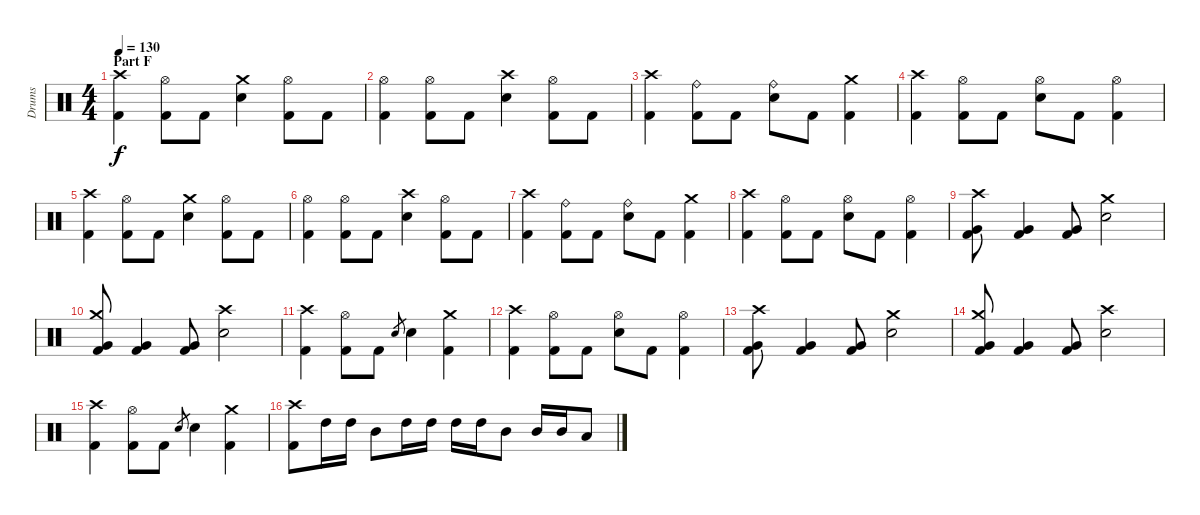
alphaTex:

\track ("Drums" "Drums") {instrument percussion}
\staff {score}
\articulation defaults
\ts (4 4)
\section ("" "Part F")
\tempo 130
\clef neutral
\ks c
("Crash high (hit)" "Kick (hit) 2").4{dy f} ("Hi-Hat (open)" "Kick (hit) 2").8 "Kick (hit) 2".8 ("Crash medium (hit)" "Electric Snare (hit)").4 ("Hi-Hat (open)" "Kick (hit) 2").8 "Kick (hit) 2".8 |
("Hi-Hat (open)" "Kick (hit) 2").4 ("Hi-Hat (open)" "Kick (hit) 2").8 "Kick (hit) 2".8 ("Crash high (hit)" "Electric Snare (hit)").4 ("Hi-Hat (open)" "Kick (hit) 2").8 "Kick (hit) 2".8 |
("Crash high (hit)" "Kick (hit) 2").4 ("Ride (bell)" "Kick (hit) 2").8 "Kick (hit) 2".8 ("Ride (bell)" "Electric Snare (hit)").8 "Kick (hit) 2".8 ("Crash medium (hit)" "Kick (hit) 2").4 |
("Crash high (hit)" "Kick (hit) 2").4 ("Hi-Hat (open)" "Kick (hit) 2").8 "Kick (hit) 2".8 ("Hi-Hat (open)" "Electric Snare (hit)").8 "Kick (hit) 2".8 ("Hi-Hat (open)" "Kick (hit) 2").4 |
("Crash high (hit)" "Kick (hit) 2").4 ("Hi-Hat (open)" "Kick (hit) 2").8 "Kick (hit) 2".8 ("Crash medium (hit)" "Electric Snare (hit)").4 ("Hi-Hat (open)" "Kick (hit) 2").8 "Kick (hit) 2".8 |
("Hi-Hat (open)" "Kick (hit) 2").4 ("Hi-Hat (open)" "Kick (hit) 2").8 "Kick (hit) 2".8 ("Crash high (hit)" "Electric Snare (hit)").4 ("Hi-Hat (open)" "Kick (hit) 2").8 "Kick (hit) 2".8 |
("Crash high (hit)" "Kick (hit) 2").4 ("Ride (bell)" "Kick (hit) 2").8 "Kick (hit) 2".8 ("Ride (bell)" "Electric Snare (hit)").8 "Kick (hit) 2".8 ("Crash medium (hit)" "Kick (hit) 2").4 |
("Crash high (hit)" "Kick (hit) 2").4 ("Hi-Hat (open)" "Kick (hit) 2").8 "Kick (hit) 2".8 ("Hi-Hat (open)" "Electric Snare (hit)").8 "Kick (hit) 2".8 ("Hi-Hat (open)" "Kick (hit) 2").4 |
("Crash high (hit)" "Very Low Tom (hit)" "Kick (hit) 2").8 ("Very Low Tom (hit)" "Kick (hit) 2").4 ("Very Low Tom (hit)" "Kick (hit) 2").8 ("Crash medium (hit)" "Electric Snare (hit)").2 |
("Crash medium (hit)" "Very Low Tom (hit)" "Kick (hit) 2").8 ("Very Low Tom (hit)" "Kick (hit) 2").4 ("Very Low Tom (hit)" "Kick (hit) 2").8 ("Crash high (hit)" "Electric Snare (hit)").2 |
("Crash high (hit)" "Kick (hit) 2").4 ("Hi-Hat (open)" "Kick (hit) 2").8 "Kick (hit) 2".8 "Electric Snare (hit)".8{gr} "Electric Snare (hit)".4 ("Crash medium (hit)" "Kick (hit) 2").4 |
("Crash high (hit)" "Kick (hit) 2").4 ("Hi-Hat (open)" "Kick (hit) 2").8 "Kick (hit) 2".8 ("Hi-Hat (open)" "Electric Snare (hit)").8 "Kick (hit) 2".8 ("Hi-Hat (open)" "Kick (hit) 2").4 |
("Crash high (hit)" "Very Low Tom (hit)" "Kick (hit) 2").8 ("Very Low Tom (hit)" "Kick (hit) 2").4 ("Very Low Tom (hit)" "Kick (hit) 2").8 ("Crash medium (hit)" "Electric Snare (hit)").2 |
("Crash medium (hit)" "Very Low Tom (hit)" "Kick (hit) 2").8 ("Very Low Tom (hit)" "Kick (hit) 2").4 ("Very Low Tom (hit)" "Kick (hit) 2").8 ("Crash high (hit)" "Electric Snare (hit)").2 |
("Crash high (hit)" "Kick (hit) 2").4 ("Hi-Hat (open)" "Kick (hit) 2").8 "Kick (hit) 2".8 "Electric Snare (hit)".8{gr} "Electric Snare (hit)".4 ("Crash medium (hit)" "Kick (hit) 2").4 |
("Crash high (hit)" "Kick (hit) 2").8 "High Tom (hit)".16 "High Tom (hit)".16 "Mid Tom (hit)".8 "High Tom (hit)".16 "High Tom (hit)".16 "High Tom (hit)".16 "High Tom (hit)".16 "Mid Tom (hit)".8 "Mid Tom (hit)".16 "Mid Tom (hit)".16 "Low Tom (hit)".8
